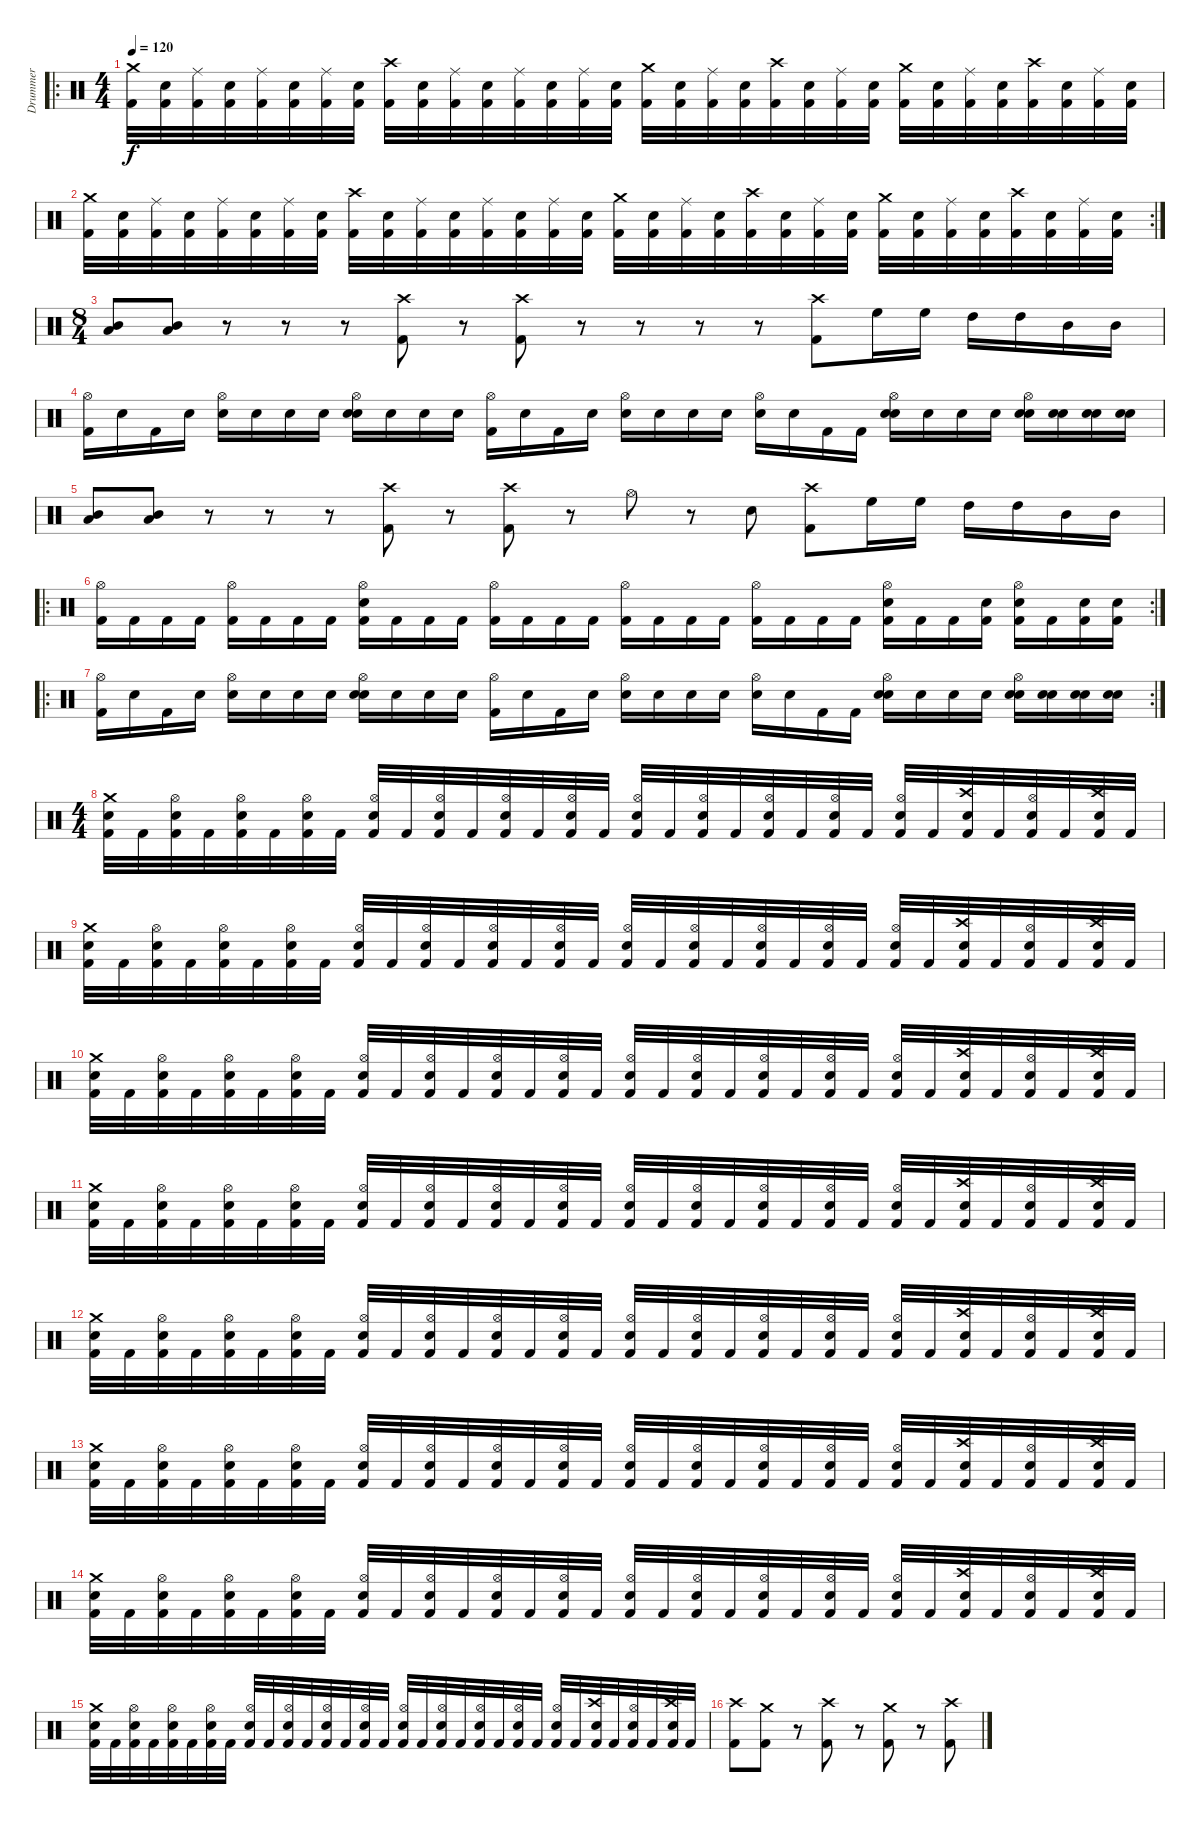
\track ("Drummer" "Drummer") {instrument percussion}
\staff {score}
\articulation defaults
\ro
\ts (4 4)
\tempo 120
\clef neutral
\ks c
("Crash medium (hit)" "Kick (hit) 2").32{dy f} ("Snare (hit) 2" "Kick (hit) 2").32 ("Ride (middle)" "Kick (hit) 2").32 ("Snare (hit) 2" "Kick (hit) 2").32 ("Ride (middle)" "Kick (hit) 2").32 ("Snare (hit) 2" "Kick (hit) 2").32 ("Ride (middle)" "Kick (hit) 2").32 ("Snare (hit) 2" "Kick (hit) 2").32 ("Crash high (hit)" "Kick (hit) 2").32 ("Snare (hit) 2" "Kick (hit) 2").32 ("Ride (middle)" "Kick (hit) 2").32 ("Snare (hit) 2" "Kick (hit) 2").32 ("Ride (middle)" "Kick (hit) 2").32 ("Snare (hit) 2" "Kick (hit) 2").32 ("Ride (middle)" "Kick (hit) 2").32 ("Snare (hit) 2" "Kick (hit) 2").32 ("Crash medium (hit)" "Kick (hit) 2").32 ("Snare (hit) 2" "Kick (hit) 2").32 ("Ride (middle)" "Kick (hit) 2").32 ("Snare (hit) 2" "Kick (hit) 2").32 ("Crash high (hit)" "Kick (hit) 2").32 ("Snare (hit) 2" "Kick (hit) 2").32 ("Ride (middle)" "Kick (hit) 2").32 ("Snare (hit) 2" "Kick (hit) 2").32 ("Crash medium (hit)" "Kick (hit) 2").32 ("Snare (hit) 2" "Kick (hit) 2").32 ("Ride (middle)" "Kick (hit) 2").32 ("Snare (hit) 2" "Kick (hit) 2").32 ("Crash high (hit)" "Kick (hit) 2").32 ("Snare (hit) 2" "Kick (hit) 2").32 ("Ride (middle)" "Kick (hit) 2").32 ("Snare (hit) 2" "Kick (hit) 2").32 |
\rc 2
("Crash medium (hit)" "Kick (hit) 2").32 ("Snare (hit) 2" "Kick (hit) 2").32 ("Ride (middle)" "Kick (hit) 2").32 ("Snare (hit) 2" "Kick (hit) 2").32 ("Ride (middle)" "Kick (hit) 2").32 ("Snare (hit) 2" "Kick (hit) 2").32 ("Ride (middle)" "Kick (hit) 2").32 ("Snare (hit) 2" "Kick (hit) 2").32 ("Crash high (hit)" "Kick (hit) 2").32 ("Snare (hit) 2" "Kick (hit) 2").32 ("Ride (middle)" "Kick (hit) 2").32 ("Snare (hit) 2" "Kick (hit) 2").32 ("Ride (middle)" "Kick (hit) 2").32 ("Snare (hit) 2" "Kick (hit) 2").32 ("Ride (middle)" "Kick (hit) 2").32 ("Snare (hit) 2" "Kick (hit) 2").32 ("Crash medium (hit)" "Kick (hit) 2").32 ("Snare (hit) 2" "Kick (hit) 2").32 ("Ride (middle)" "Kick (hit) 2").32 ("Snare (hit) 2" "Kick (hit) 2").32 ("Crash high (hit)" "Kick (hit) 2").32 ("Snare (hit) 2" "Kick (hit) 2").32 ("Ride (middle)" "Kick (hit) 2").32 ("Snare (hit) 2" "Kick (hit) 2").32 ("Crash medium (hit)" "Kick (hit) 2").32 ("Snare (hit) 2" "Kick (hit) 2").32 ("Ride (middle)" "Kick (hit) 2").32 ("Snare (hit) 2" "Kick (hit) 2").32 ("Crash high (hit)" "Kick (hit) 2").32 ("Snare (hit) 2" "Kick (hit) 2").32 ("Ride (middle)" "Kick (hit) 2").32 ("Snare (hit) 2" "Kick (hit) 2").32 |
\ts (8 4)
("Low Tom (hit)" "Mid Tom (hit)").8 ("Low Tom (hit)" "Mid Tom (hit)").8 r.8 r.8 r.8 ("Crash high (hit)" "Kick (hit) 2").8 r.8 ("Crash high (hit)" "Kick (hit) 2").8 r.8 r.8 r.8 r.8 ("Crash high (hit)" "Kick (hit) 2").8 "High Floor Tom (hit)".16 "High Floor Tom (hit)".16 "High Tom (hit)".16 "High Tom (hit)".16 "Mid Tom (hit)".16 "Mid Tom (hit)".16 |
("Hi-Hat (open)" "Kick (hit) 2").16 "Snare (hit)".16 "Kick (hit) 2".16 "Snare (hit)".16 ("Hi-Hat (open)" "Snare (hit)").16 "Snare (hit)".16 "Snare (hit)".16 "Snare (hit)".16 ("Hi-Hat (open)" "Snare (hit) 2" "Snare (hit)").16 "Snare (hit)".16 "Snare (hit)".16 "Snare (hit)".16 ("Hi-Hat (open)" "Kick (hit) 2").16 "Snare (hit)".16 "Kick (hit) 2".16 "Snare (hit)".16 ("Hi-Hat (open)" "Snare (hit)").16 "Snare (hit)".16 "Snare (hit)".16 "Snare (hit)".16 ("Hi-Hat (open)" "Snare (hit)").16 "Snare (hit)".16 "Kick (hit) 2".16 "Kick (hit) 2".16 ("Hi-Hat (open)" "Snare (hit) 2" "Snare (hit)").16 "Snare (hit)".16 "Snare (hit)".16 "Snare (hit)".16 ("Hi-Hat (open)" "Snare (hit) 2" "Snare (hit)").16 ("Snare (hit) 2" "Snare (hit)").16 ("Snare (hit) 2" "Snare (hit)").16 ("Snare (hit) 2" "Snare (hit)").16 |
("Low Tom (hit)" "Mid Tom (hit)").8 ("Low Tom (hit)" "Mid Tom (hit)").8 r.8 r.8 r.8 ("Crash high (hit)" "Kick (hit) 2").8 r.8 ("Crash high (hit)" "Kick (hit) 2").8 r.8 "Hi-Hat (open)".8 r.8 "Snare (hit) 2".8 ("Crash high (hit)" "Kick (hit) 2").8 "High Floor Tom (hit)".16 "High Floor Tom (hit)".16 "High Tom (hit)".16 "High Tom (hit)".16 "Mid Tom (hit)".16 "Mid Tom (hit)".16 |
\ro
\rc 2
("Hi-Hat (open)" "Kick (hit) 2").16 "Kick (hit) 2".16 "Kick (hit) 2".16 "Kick (hit) 2".16 ("Hi-Hat (open)" "Kick (hit) 2").16 "Kick (hit) 2".16 "Kick (hit) 2".16 "Kick (hit) 2".16 ("Hi-Hat (open)" "Snare (hit) 2" "Kick (hit) 2").16 "Kick (hit) 2".16 "Kick (hit) 2".16 "Kick (hit) 2".16 ("Hi-Hat (open)" "Kick (hit) 2").16 "Kick (hit) 2".16 "Kick (hit) 2".16 "Kick (hit) 2".16 ("Hi-Hat (open)" "Kick (hit) 2").16 "Kick (hit) 2".16 "Kick (hit) 2".16 "Kick (hit) 2".16 ("Hi-Hat (open)" "Kick (hit) 2").16 "Kick (hit) 2".16 "Kick (hit) 2".16 "Kick (hit) 2".16 ("Hi-Hat (open)" "Snare (hit) 2" "Kick (hit) 2").16 "Kick (hit) 2".16 "Kick (hit) 2".16 ("Snare (hit) 2" "Kick (hit) 2").16 ("Hi-Hat (open)" "Snare (hit) 2" "Kick (hit) 2").16 "Kick (hit) 2".16 ("Snare (hit) 2" "Kick (hit) 2").16 ("Snare (hit) 2" "Kick (hit) 2").16 |
\ro
\rc 2
("Hi-Hat (open)" "Kick (hit) 2").16 "Snare (hit)".16 "Kick (hit) 2".16 "Snare (hit)".16 ("Hi-Hat (open)" "Snare (hit)").16 "Snare (hit)".16 "Snare (hit)".16 "Snare (hit)".16 ("Hi-Hat (open)" "Snare (hit) 2" "Snare (hit)").16 "Snare (hit)".16 "Snare (hit)".16 "Snare (hit)".16 ("Hi-Hat (open)" "Kick (hit) 2").16 "Snare (hit)".16 "Kick (hit) 2".16 "Snare (hit)".16 ("Hi-Hat (open)" "Snare (hit)").16 "Snare (hit)".16 "Snare (hit)".16 "Snare (hit)".16 ("Hi-Hat (open)" "Snare (hit)").16 "Snare (hit)".16 "Kick (hit) 2".16 "Kick (hit) 2".16 ("Hi-Hat (open)" "Snare (hit) 2" "Snare (hit)").16 "Snare (hit)".16 "Snare (hit)".16 "Snare (hit)".16 ("Hi-Hat (open)" "Snare (hit) 2" "Snare (hit)").16 ("Snare (hit) 2" "Snare (hit)").16 ("Snare (hit) 2" "Snare (hit)").16 ("Snare (hit) 2" "Snare (hit)").16 |
\ts (4 4)
("Crash medium (hit)" "Electric Snare (hit)" "Kick (hit) 2").32 "Kick (hit) 2".32 ("Hi-Hat (open)" "Electric Snare (hit)" "Kick (hit) 2").32 "Kick (hit) 2".32 ("Hi-Hat (open)" "Electric Snare (hit)" "Kick (hit) 2").32 "Kick (hit) 2".32 ("Hi-Hat (open)" "Electric Snare (hit)" "Kick (hit) 2").32 "Kick (hit) 2".32 ("Hi-Hat (open)" "Electric Snare (hit)" "Kick (hit) 2").32 "Kick (hit) 2".32 ("Hi-Hat (open)" "Electric Snare (hit)" "Kick (hit) 2").32 "Kick (hit) 2".32 ("Hi-Hat (open)" "Electric Snare (hit)" "Kick (hit) 2").32 "Kick (hit) 2".32 ("Hi-Hat (open)" "Electric Snare (hit)" "Kick (hit) 2").32 "Kick (hit) 2".32 ("Hi-Hat (open)" "Electric Snare (hit)" "Kick (hit) 2").32 "Kick (hit) 2".32 ("Hi-Hat (open)" "Electric Snare (hit)" "Kick (hit) 2").32 "Kick (hit) 2".32 ("Hi-Hat (open)" "Electric Snare (hit)" "Kick (hit) 2").32 "Kick (hit) 2".32 ("Hi-Hat (open)" "Electric Snare (hit)" "Kick (hit) 2").32 "Kick (hit) 2".32 ("Hi-Hat (open)" "Electric Snare (hit)" "Kick (hit) 2").32 "Kick (hit) 2".32 ("Crash high (hit)" "Electric Snare (hit)" "Kick (hit) 2").32 "Kick (hit) 2".32 ("Hi-Hat (open)" "Electric Snare (hit)" "Kick (hit) 2").32 "Kick (hit) 2".32 ("Crash high (hit)" "Electric Snare (hit)" "Kick (hit) 2").32 "Kick (hit) 2".32 |
("Crash medium (hit)" "Electric Snare (hit)" "Kick (hit) 2").32 "Kick (hit) 2".32 ("Hi-Hat (open)" "Electric Snare (hit)" "Kick (hit) 2").32 "Kick (hit) 2".32 ("Hi-Hat (open)" "Electric Snare (hit)" "Kick (hit) 2").32 "Kick (hit) 2".32 ("Hi-Hat (open)" "Electric Snare (hit)" "Kick (hit) 2").32 "Kick (hit) 2".32 ("Hi-Hat (open)" "Electric Snare (hit)" "Kick (hit) 2").32 "Kick (hit) 2".32 ("Hi-Hat (open)" "Electric Snare (hit)" "Kick (hit) 2").32 "Kick (hit) 2".32 ("Hi-Hat (open)" "Electric Snare (hit)" "Kick (hit) 2").32 "Kick (hit) 2".32 ("Hi-Hat (open)" "Electric Snare (hit)" "Kick (hit) 2").32 "Kick (hit) 2".32 ("Hi-Hat (open)" "Electric Snare (hit)" "Kick (hit) 2").32 "Kick (hit) 2".32 ("Hi-Hat (open)" "Electric Snare (hit)" "Kick (hit) 2").32 "Kick (hit) 2".32 ("Hi-Hat (open)" "Electric Snare (hit)" "Kick (hit) 2").32 "Kick (hit) 2".32 ("Hi-Hat (open)" "Electric Snare (hit)" "Kick (hit) 2").32 "Kick (hit) 2".32 ("Hi-Hat (open)" "Electric Snare (hit)" "Kick (hit) 2").32 "Kick (hit) 2".32 ("Crash high (hit)" "Electric Snare (hit)" "Kick (hit) 2").32 "Kick (hit) 2".32 ("Hi-Hat (open)" "Electric Snare (hit)" "Kick (hit) 2").32 "Kick (hit) 2".32 ("Crash high (hit)" "Electric Snare (hit)" "Kick (hit) 2").32 "Kick (hit) 2".32 |
("Crash medium (hit)" "Electric Snare (hit)" "Kick (hit) 2").32 "Kick (hit) 2".32 ("Hi-Hat (open)" "Electric Snare (hit)" "Kick (hit) 2").32 "Kick (hit) 2".32 ("Hi-Hat (open)" "Electric Snare (hit)" "Kick (hit) 2").32 "Kick (hit) 2".32 ("Hi-Hat (open)" "Electric Snare (hit)" "Kick (hit) 2").32 "Kick (hit) 2".32 ("Hi-Hat (open)" "Electric Snare (hit)" "Kick (hit) 2").32 "Kick (hit) 2".32 ("Hi-Hat (open)" "Electric Snare (hit)" "Kick (hit) 2").32 "Kick (hit) 2".32 ("Hi-Hat (open)" "Electric Snare (hit)" "Kick (hit) 2").32 "Kick (hit) 2".32 ("Hi-Hat (open)" "Electric Snare (hit)" "Kick (hit) 2").32 "Kick (hit) 2".32 ("Hi-Hat (open)" "Electric Snare (hit)" "Kick (hit) 2").32 "Kick (hit) 2".32 ("Hi-Hat (open)" "Electric Snare (hit)" "Kick (hit) 2").32 "Kick (hit) 2".32 ("Hi-Hat (open)" "Electric Snare (hit)" "Kick (hit) 2").32 "Kick (hit) 2".32 ("Hi-Hat (open)" "Electric Snare (hit)" "Kick (hit) 2").32 "Kick (hit) 2".32 ("Hi-Hat (open)" "Electric Snare (hit)" "Kick (hit) 2").32 "Kick (hit) 2".32 ("Crash high (hit)" "Electric Snare (hit)" "Kick (hit) 2").32 "Kick (hit) 2".32 ("Hi-Hat (open)" "Electric Snare (hit)" "Kick (hit) 2").32 "Kick (hit) 2".32 ("Crash high (hit)" "Electric Snare (hit)" "Kick (hit) 2").32 "Kick (hit) 2".32 |
("Crash medium (hit)" "Electric Snare (hit)" "Kick (hit) 2").32 "Kick (hit) 2".32 ("Hi-Hat (open)" "Electric Snare (hit)" "Kick (hit) 2").32 "Kick (hit) 2".32 ("Hi-Hat (open)" "Electric Snare (hit)" "Kick (hit) 2").32 "Kick (hit) 2".32 ("Hi-Hat (open)" "Electric Snare (hit)" "Kick (hit) 2").32 "Kick (hit) 2".32 ("Hi-Hat (open)" "Electric Snare (hit)" "Kick (hit) 2").32 "Kick (hit) 2".32 ("Hi-Hat (open)" "Electric Snare (hit)" "Kick (hit) 2").32 "Kick (hit) 2".32 ("Hi-Hat (open)" "Electric Snare (hit)" "Kick (hit) 2").32 "Kick (hit) 2".32 ("Hi-Hat (open)" "Electric Snare (hit)" "Kick (hit) 2").32 "Kick (hit) 2".32 ("Hi-Hat (open)" "Electric Snare (hit)" "Kick (hit) 2").32 "Kick (hit) 2".32 ("Hi-Hat (open)" "Electric Snare (hit)" "Kick (hit) 2").32 "Kick (hit) 2".32 ("Hi-Hat (open)" "Electric Snare (hit)" "Kick (hit) 2").32 "Kick (hit) 2".32 ("Hi-Hat (open)" "Electric Snare (hit)" "Kick (hit) 2").32 "Kick (hit) 2".32 ("Hi-Hat (open)" "Electric Snare (hit)" "Kick (hit) 2").32 "Kick (hit) 2".32 ("Crash high (hit)" "Electric Snare (hit)" "Kick (hit) 2").32 "Kick (hit) 2".32 ("Hi-Hat (open)" "Electric Snare (hit)" "Kick (hit) 2").32 "Kick (hit) 2".32 ("Crash high (hit)" "Electric Snare (hit)" "Kick (hit) 2").32 "Kick (hit) 2".32 |
("Crash medium (hit)" "Electric Snare (hit)" "Kick (hit) 2").32 "Kick (hit) 2".32 ("Hi-Hat (open)" "Electric Snare (hit)" "Kick (hit) 2").32 "Kick (hit) 2".32 ("Hi-Hat (open)" "Electric Snare (hit)" "Kick (hit) 2").32 "Kick (hit) 2".32 ("Hi-Hat (open)" "Electric Snare (hit)" "Kick (hit) 2").32 "Kick (hit) 2".32 ("Hi-Hat (open)" "Electric Snare (hit)" "Kick (hit) 2").32 "Kick (hit) 2".32 ("Hi-Hat (open)" "Electric Snare (hit)" "Kick (hit) 2").32 "Kick (hit) 2".32 ("Hi-Hat (open)" "Electric Snare (hit)" "Kick (hit) 2").32 "Kick (hit) 2".32 ("Hi-Hat (open)" "Electric Snare (hit)" "Kick (hit) 2").32 "Kick (hit) 2".32 ("Hi-Hat (open)" "Electric Snare (hit)" "Kick (hit) 2").32 "Kick (hit) 2".32 ("Hi-Hat (open)" "Electric Snare (hit)" "Kick (hit) 2").32 "Kick (hit) 2".32 ("Hi-Hat (open)" "Electric Snare (hit)" "Kick (hit) 2").32 "Kick (hit) 2".32 ("Hi-Hat (open)" "Electric Snare (hit)" "Kick (hit) 2").32 "Kick (hit) 2".32 ("Hi-Hat (open)" "Electric Snare (hit)" "Kick (hit) 2").32 "Kick (hit) 2".32 ("Crash high (hit)" "Electric Snare (hit)" "Kick (hit) 2").32 "Kick (hit) 2".32 ("Hi-Hat (open)" "Electric Snare (hit)" "Kick (hit) 2").32 "Kick (hit) 2".32 ("Crash high (hit)" "Electric Snare (hit)" "Kick (hit) 2").32 "Kick (hit) 2".32 |
("Crash medium (hit)" "Electric Snare (hit)" "Kick (hit) 2").32 "Kick (hit) 2".32 ("Hi-Hat (open)" "Electric Snare (hit)" "Kick (hit) 2").32 "Kick (hit) 2".32 ("Hi-Hat (open)" "Electric Snare (hit)" "Kick (hit) 2").32 "Kick (hit) 2".32 ("Hi-Hat (open)" "Electric Snare (hit)" "Kick (hit) 2").32 "Kick (hit) 2".32 ("Hi-Hat (open)" "Electric Snare (hit)" "Kick (hit) 2").32 "Kick (hit) 2".32 ("Hi-Hat (open)" "Electric Snare (hit)" "Kick (hit) 2").32 "Kick (hit) 2".32 ("Hi-Hat (open)" "Electric Snare (hit)" "Kick (hit) 2").32 "Kick (hit) 2".32 ("Hi-Hat (open)" "Electric Snare (hit)" "Kick (hit) 2").32 "Kick (hit) 2".32 ("Hi-Hat (open)" "Electric Snare (hit)" "Kick (hit) 2").32 "Kick (hit) 2".32 ("Hi-Hat (open)" "Electric Snare (hit)" "Kick (hit) 2").32 "Kick (hit) 2".32 ("Hi-Hat (open)" "Electric Snare (hit)" "Kick (hit) 2").32 "Kick (hit) 2".32 ("Hi-Hat (open)" "Electric Snare (hit)" "Kick (hit) 2").32 "Kick (hit) 2".32 ("Hi-Hat (open)" "Electric Snare (hit)" "Kick (hit) 2").32 "Kick (hit) 2".32 ("Crash high (hit)" "Electric Snare (hit)" "Kick (hit) 2").32 "Kick (hit) 2".32 ("Hi-Hat (open)" "Electric Snare (hit)" "Kick (hit) 2").32 "Kick (hit) 2".32 ("Crash high (hit)" "Electric Snare (hit)" "Kick (hit) 2").32 "Kick (hit) 2".32 |
("Crash medium (hit)" "Electric Snare (hit)" "Kick (hit) 2").32 "Kick (hit) 2".32 ("Hi-Hat (open)" "Electric Snare (hit)" "Kick (hit) 2").32 "Kick (hit) 2".32 ("Hi-Hat (open)" "Electric Snare (hit)" "Kick (hit) 2").32 "Kick (hit) 2".32 ("Hi-Hat (open)" "Electric Snare (hit)" "Kick (hit) 2").32 "Kick (hit) 2".32 ("Hi-Hat (open)" "Electric Snare (hit)" "Kick (hit) 2").32 "Kick (hit) 2".32 ("Hi-Hat (open)" "Electric Snare (hit)" "Kick (hit) 2").32 "Kick (hit) 2".32 ("Hi-Hat (open)" "Electric Snare (hit)" "Kick (hit) 2").32 "Kick (hit) 2".32 ("Hi-Hat (open)" "Electric Snare (hit)" "Kick (hit) 2").32 "Kick (hit) 2".32 ("Hi-Hat (open)" "Electric Snare (hit)" "Kick (hit) 2").32 "Kick (hit) 2".32 ("Hi-Hat (open)" "Electric Snare (hit)" "Kick (hit) 2").32 "Kick (hit) 2".32 ("Hi-Hat (open)" "Electric Snare (hit)" "Kick (hit) 2").32 "Kick (hit) 2".32 ("Hi-Hat (open)" "Electric Snare (hit)" "Kick (hit) 2").32 "Kick (hit) 2".32 ("Hi-Hat (open)" "Electric Snare (hit)" "Kick (hit) 2").32 "Kick (hit) 2".32 ("Crash high (hit)" "Electric Snare (hit)" "Kick (hit) 2").32 "Kick (hit) 2".32 ("Hi-Hat (open)" "Electric Snare (hit)" "Kick (hit) 2").32 "Kick (hit) 2".32 ("Crash high (hit)" "Electric Snare (hit)" "Kick (hit) 2").32 "Kick (hit) 2".32 |
("Crash medium (hit)" "Electric Snare (hit)" "Kick (hit) 2").32 "Kick (hit) 2".32 ("Hi-Hat (open)" "Electric Snare (hit)" "Kick (hit) 2").32 "Kick (hit) 2".32 ("Hi-Hat (open)" "Electric Snare (hit)" "Kick (hit) 2").32 "Kick (hit) 2".32 ("Hi-Hat (open)" "Electric Snare (hit)" "Kick (hit) 2").32 "Kick (hit) 2".32 ("Hi-Hat (open)" "Electric Snare (hit)" "Kick (hit) 2").32 "Kick (hit) 2".32 ("Hi-Hat (open)" "Electric Snare (hit)" "Kick (hit) 2").32 "Kick (hit) 2".32 ("Hi-Hat (open)" "Electric Snare (hit)" "Kick (hit) 2").32 "Kick (hit) 2".32 ("Hi-Hat (open)" "Electric Snare (hit)" "Kick (hit) 2").32 "Kick (hit) 2".32 ("Hi-Hat (open)" "Electric Snare (hit)" "Kick (hit) 2").32 "Kick (hit) 2".32 ("Hi-Hat (open)" "Electric Snare (hit)" "Kick (hit) 2").32 "Kick (hit) 2".32 ("Hi-Hat (open)" "Electric Snare (hit)" "Kick (hit) 2").32 "Kick (hit) 2".32 ("Hi-Hat (open)" "Electric Snare (hit)" "Kick (hit) 2").32 "Kick (hit) 2".32 ("Hi-Hat (open)" "Electric Snare (hit)" "Kick (hit) 2").32 "Kick (hit) 2".32 ("Crash high (hit)" "Electric Snare (hit)" "Kick (hit) 2").32 "Kick (hit) 2".32 ("Hi-Hat (open)" "Electric Snare (hit)" "Kick (hit) 2").32 "Kick (hit) 2".32 ("Crash high (hit)" "Electric Snare (hit)" "Kick (hit) 2").32 "Kick (hit) 2".32 |
("Crash high (hit)" "Kick (hit) 2").8 ("Crash medium (hit)" "Kick (hit) 2").8 r.8 ("Crash high (hit)" "Kick (hit) 2").8 r.8 ("Crash medium (hit)" "Kick (hit) 2").8 r.8 ("Crash high (hit)" "Kick (hit) 2").8
